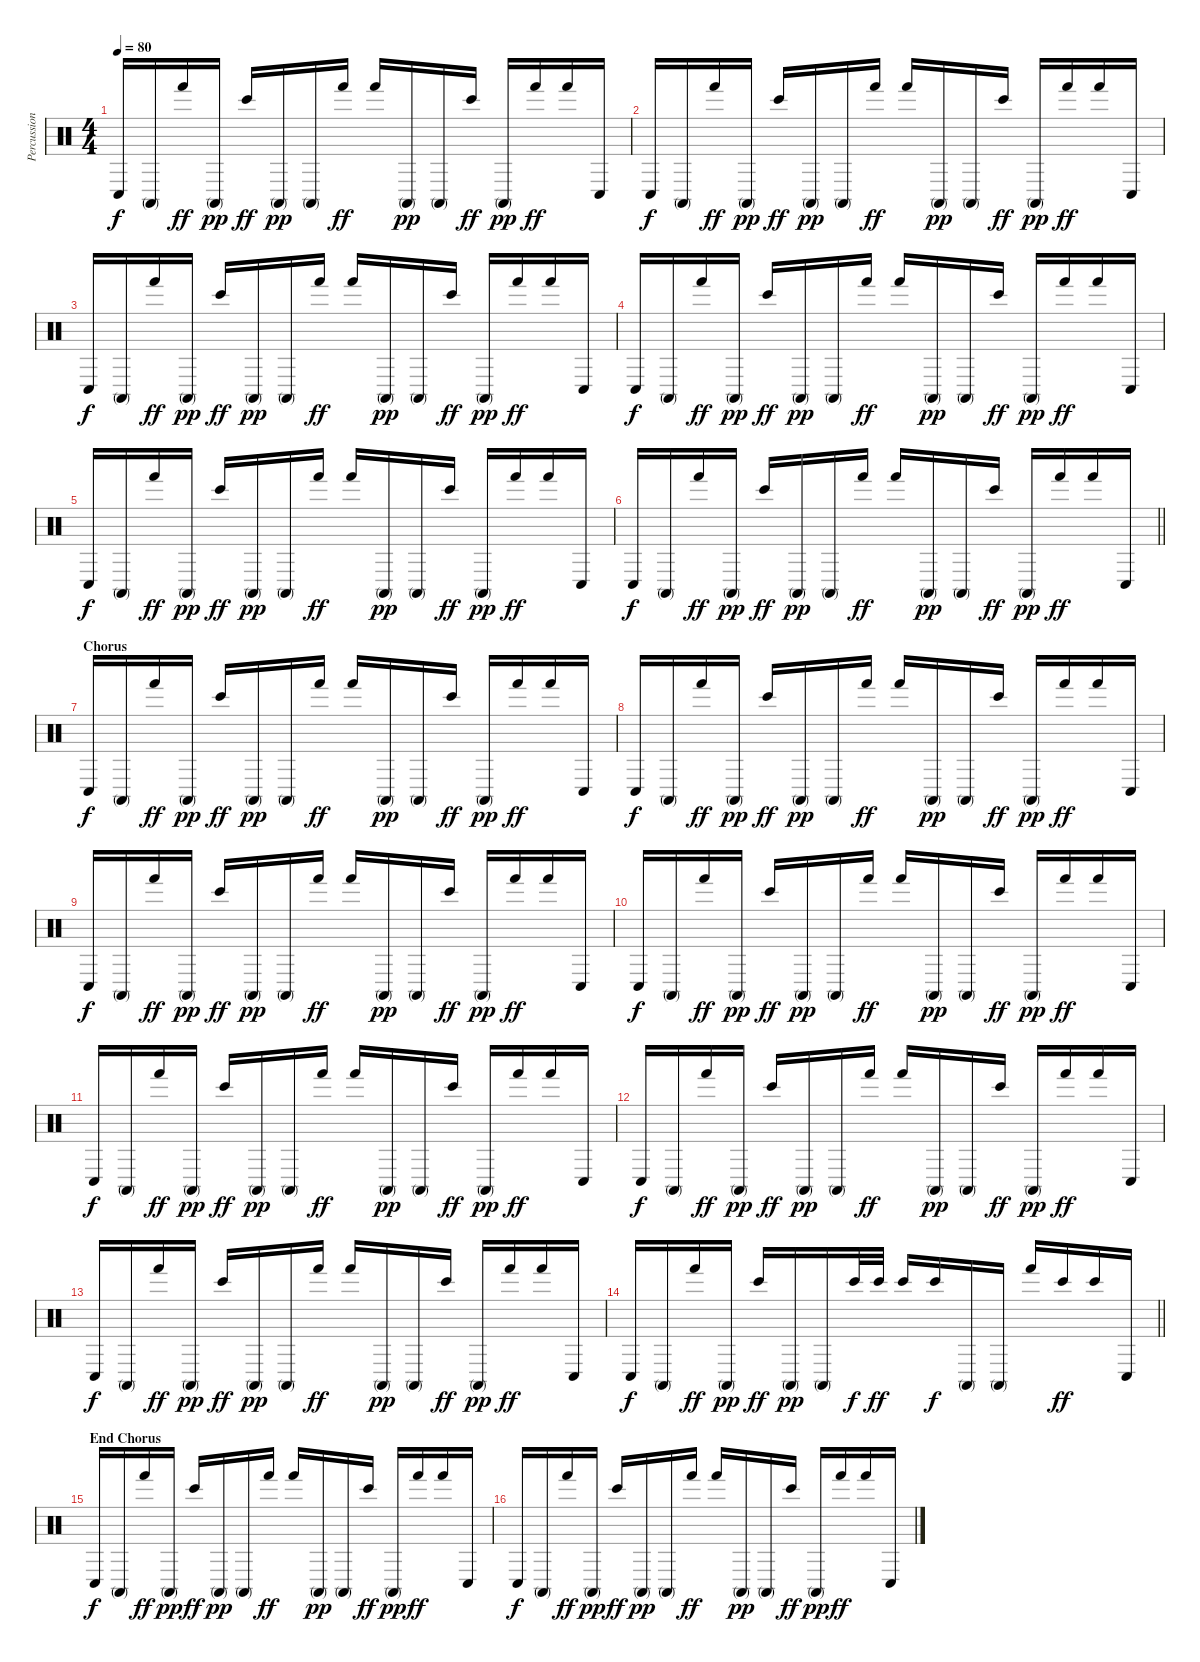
\track ("Percussions" "Percussion") {instrument percussion}
\staff {score}
\articulation defaults
\ts (4 4)
\tempo 80
\clef neutral
\ks c "Conga low (hit)".16{dy f} "Conga high (mute)".16 "Hand (hit)".16{dy ff} "Conga high (mute)".16{dy pp} "Bongo High (hit)".16{dy ff} "Conga high (mute)".16{dy pp} "Conga high (mute)".16 "Hand (hit)".16{dy ff} "Hand (hit)".16 "Conga high (mute)".16{dy pp} "Conga high (mute)".16 "Bongo High (hit)".16{dy ff} "Conga high (mute)".16{dy pp} "Hand (hit)".16{dy ff} "Hand (hit)".16 "Conga low (hit)".16
|
"Conga low (hit)".16{dy f} "Conga high (mute)".16 "Hand (hit)".16{dy ff} "Conga high (mute)".16{dy pp} "Bongo High (hit)".16{dy ff} "Conga high (mute)".16{dy pp} "Conga high (mute)".16 "Hand (hit)".16{dy ff} "Hand (hit)".16 "Conga high (mute)".16{dy pp} "Conga high (mute)".16 "Bongo High (hit)".16{dy ff} "Conga high (mute)".16{dy pp} "Hand (hit)".16{dy ff} "Hand (hit)".16 "Conga low (hit)".16 |
"Conga low (hit)".16{dy f} "Conga high (mute)".16 "Hand (hit)".16{dy ff} "Conga high (mute)".16{dy pp} "Bongo High (hit)".16{dy ff} "Conga high (mute)".16{dy pp} "Conga high (mute)".16 "Hand (hit)".16{dy ff} "Hand (hit)".16 "Conga high (mute)".16{dy pp} "Conga high (mute)".16 "Bongo High (hit)".16{dy ff} "Conga high (mute)".16{dy pp} "Hand (hit)".16{dy ff} "Hand (hit)".16 "Conga low (hit)".16 |
"Conga low (hit)".16{dy f} "Conga high (mute)".16 "Hand (hit)".16{dy ff} "Conga high (mute)".16{dy pp} "Bongo High (hit)".16{dy ff} "Conga high (mute)".16{dy pp} "Conga high (mute)".16 "Hand (hit)".16{dy ff} "Hand (hit)".16 "Conga high (mute)".16{dy pp} "Conga high (mute)".16 "Bongo High (hit)".16{dy ff} "Conga high (mute)".16{dy pp} "Hand (hit)".16{dy ff} "Hand (hit)".16 "Conga low (hit)".16 |
"Conga low (hit)".16{dy f} "Conga high (mute)".16 "Hand (hit)".16{dy ff} "Conga high (mute)".16{dy pp} "Bongo High (hit)".16{dy ff} "Conga high (mute)".16{dy pp} "Conga high (mute)".16 "Hand (hit)".16{dy ff} "Hand (hit)".16 "Conga high (mute)".16{dy pp} "Conga high (mute)".16 "Bongo High (hit)".16{dy ff} "Conga high (mute)".16{dy pp} "Hand (hit)".16{dy ff} "Hand (hit)".16 "Conga low (hit)".16 |
\barLineRight lightlight "Conga low (hit)".16{dy f} "Conga high (mute)".16 "Hand (hit)".16{dy ff} "Conga high (mute)".16{dy pp} "Bongo High (hit)".16{dy ff} "Conga high (mute)".16{dy pp} "Conga high (mute)".16 "Hand (hit)".16{dy ff} "Hand (hit)".16 "Conga high (mute)".16{dy pp} "Conga high (mute)".16 "Bongo High (hit)".16{dy ff} "Conga high (mute)".16{dy pp} "Hand (hit)".16{dy ff} "Hand (hit)".16 "Conga low (hit)".16
|
\section ("" "Chorus")
"Conga low (hit)".16{dy f} "Conga high (mute)".16 "Hand (hit)".16{dy ff} "Conga high (mute)".16{dy pp} "Bongo High (hit)".16{dy ff} "Conga high (mute)".16{dy pp} "Conga high (mute)".16 "Hand (hit)".16{dy ff} "Hand (hit)".16 "Conga high (mute)".16{dy pp} "Conga high (mute)".16 "Bongo High (hit)".16{dy ff} "Conga high (mute)".16{dy pp} "Hand (hit)".16{dy ff} "Hand (hit)".16 "Conga low (hit)".16 |
"Conga low (hit)".16{dy f} "Conga high (mute)".16 "Hand (hit)".16{dy ff} "Conga high (mute)".16{dy pp} "Bongo High (hit)".16{dy ff} "Conga high (mute)".16{dy pp} "Conga high (mute)".16 "Hand (hit)".16{dy ff} "Hand (hit)".16 "Conga high (mute)".16{dy pp} "Conga high (mute)".16 "Bongo High (hit)".16{dy ff} "Conga high (mute)".16{dy pp} "Hand (hit)".16{dy ff} "Hand (hit)".16 "Conga low (hit)".16 |
"Conga low (hit)".16{dy f} "Conga high (mute)".16 "Hand (hit)".16{dy ff} "Conga high (mute)".16{dy pp} "Bongo High (hit)".16{dy ff} "Conga high (mute)".16{dy pp} "Conga high (mute)".16 "Hand (hit)".16{dy ff} "Hand (hit)".16 "Conga high (mute)".16{dy pp} "Conga high (mute)".16 "Bongo High (hit)".16{dy ff} "Conga high (mute)".16{dy pp} "Hand (hit)".16{dy ff} "Hand (hit)".16 "Conga low (hit)".16 |
"Conga low (hit)".16{dy f} "Conga high (mute)".16 "Hand (hit)".16{dy ff} "Conga high (mute)".16{dy pp} "Bongo High (hit)".16{dy ff} "Conga high (mute)".16{dy pp} "Conga high (mute)".16 "Hand (hit)".16{dy ff} "Hand (hit)".16 "Conga high (mute)".16{dy pp} "Conga high (mute)".16 "Bongo High (hit)".16{dy ff} "Conga high (mute)".16{dy pp} "Hand (hit)".16{dy ff} "Hand (hit)".16 "Conga low (hit)".16 |
"Conga low (hit)".16{dy f} "Conga high (mute)".16 "Hand (hit)".16{dy ff} "Conga high (mute)".16{dy pp} "Bongo High (hit)".16{dy ff} "Conga high (mute)".16{dy pp} "Conga high (mute)".16 "Hand (hit)".16{dy ff} "Hand (hit)".16 "Conga high (mute)".16{dy pp} "Conga high (mute)".16 "Bongo High (hit)".16{dy ff} "Conga high (mute)".16{dy pp} "Hand (hit)".16{dy ff} "Hand (hit)".16 "Conga low (hit)".16 |
"Conga low (hit)".16{dy f} "Conga high (mute)".16 "Hand (hit)".16{dy ff} "Conga high (mute)".16{dy pp} "Bongo High (hit)".16{dy ff} "Conga high (mute)".16{dy pp} "Conga high (mute)".16 "Hand (hit)".16{dy ff} "Hand (hit)".16 "Conga high (mute)".16{dy pp} "Conga high (mute)".16 "Bongo High (hit)".16{dy ff} "Conga high (mute)".16{dy pp} "Hand (hit)".16{dy ff} "Hand (hit)".16 "Conga low (hit)".16 |
"Conga low (hit)".16{dy f} "Conga high (mute)".16 "Hand (hit)".16{dy ff} "Conga high (mute)".16{dy pp} "Bongo High (hit)".16{dy ff} "Conga high (mute)".16{dy pp} "Conga high (mute)".16 "Hand (hit)".16{dy ff} "Hand (hit)".16 "Conga high (mute)".16{dy pp} "Conga high (mute)".16 "Bongo High (hit)".16{dy ff} "Conga high (mute)".16{dy pp} "Hand (hit)".16{dy ff} "Hand (hit)".16 "Conga low (hit)".16 |
\barLineRight lightlight "Conga low (hit)".16{dy f} "Conga high (mute)".16 "Hand (hit)".16{dy ff} "Conga high (mute)".16{dy pp} "Bongo High (hit)".16{dy ff} "Conga high (mute)".16{dy pp} "Conga high (mute)".16 "Bongo High (hit)".32{dy f} "Bongo High (hit)".32{dy ff} "Bongo High (hit)".16 "Bongo High (hit)".16{dy f} "Conga high (mute)".16 "Conga high (mute)".16 "Hand (hit)".16 "Bongo High (hit)".16{dy ff} "Bongo High (hit)".16 "Conga low (hit)".16
|
\section ("" "End Chorus")
"Conga low (hit)".16{dy f} "Conga high (mute)".16 "Hand (hit)".16{dy ff} "Conga high (mute)".16{dy pp} "Bongo High (hit)".16{dy ff} "Conga high (mute)".16{dy pp} "Conga high (mute)".16 "Hand (hit)".16{dy ff} "Hand (hit)".16 "Conga high (mute)".16{dy pp} "Conga high (mute)".16 "Bongo High (hit)".16{dy ff} "Conga high (mute)".16{dy pp} "Hand (hit)".16{dy ff} "Hand (hit)".16 "Conga low (hit)".16 |
"Conga low (hit)".16{dy f} "Conga high (mute)".16 "Hand (hit)".16{dy ff} "Conga high (mute)".16{dy pp} "Bongo High (hit)".16{dy ff} "Conga high (mute)".16{dy pp} "Conga high (mute)".16 "Hand (hit)".16{dy ff} "Hand (hit)".16 "Conga high (mute)".16{dy pp} "Conga high (mute)".16 "Bongo High (hit)".16{dy ff} "Conga high (mute)".16{dy pp} "Hand (hit)".16{dy ff} "Hand (hit)".16 "Conga low (hit)".16
